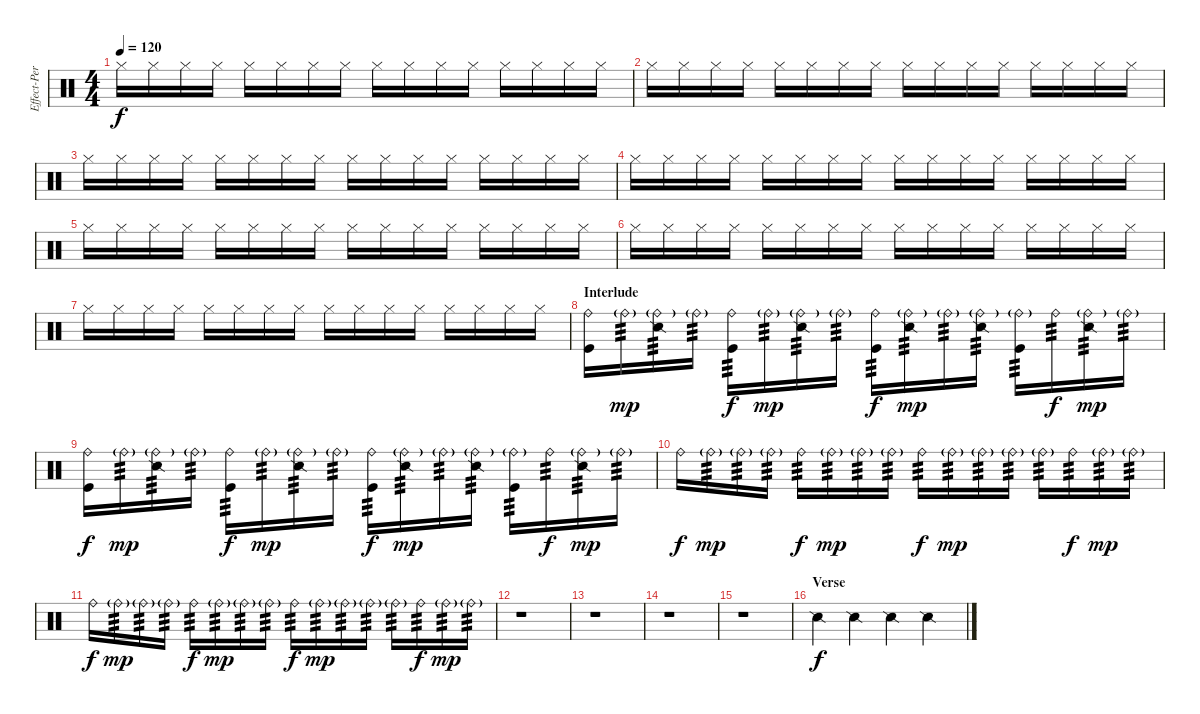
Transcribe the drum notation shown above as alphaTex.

\track ("Effect-Percs" "Effect-Per") {instrument percussion}
\staff {score}
\articulation defaults
\ts (4 4)
\tempo 120
\clef neutral
\ks c "Hi-Hat (closed)".16{dy f} "Hi-Hat (closed)".16 "Hi-Hat (closed)".16 "Hi-Hat (closed)".16 "Hi-Hat (closed)".16 "Hi-Hat (closed)".16 "Hi-Hat (closed)".16 "Hi-Hat (closed)".16 "Hi-Hat (closed)".16 "Hi-Hat (closed)".16 "Hi-Hat (closed)".16 "Hi-Hat (closed)".16 "Hi-Hat (closed)".16 "Hi-Hat (closed)".16 "Hi-Hat (closed)".16 "Hi-Hat (closed)".16
|
"Hi-Hat (closed)".16 "Hi-Hat (closed)".16 "Hi-Hat (closed)".16 "Hi-Hat (closed)".16 "Hi-Hat (closed)".16 "Hi-Hat (closed)".16 "Hi-Hat (closed)".16 "Hi-Hat (closed)".16 "Hi-Hat (closed)".16 "Hi-Hat (closed)".16 "Hi-Hat (closed)".16 "Hi-Hat (closed)".16 "Hi-Hat (closed)".16 "Hi-Hat (closed)".16 "Hi-Hat (closed)".16 "Hi-Hat (closed)".16 |
"Hi-Hat (closed)".16 "Hi-Hat (closed)".16 "Hi-Hat (closed)".16 "Hi-Hat (closed)".16 "Hi-Hat (closed)".16 "Hi-Hat (closed)".16 "Hi-Hat (closed)".16 "Hi-Hat (closed)".16 "Hi-Hat (closed)".16 "Hi-Hat (closed)".16 "Hi-Hat (closed)".16 "Hi-Hat (closed)".16 "Hi-Hat (closed)".16 "Hi-Hat (closed)".16 "Hi-Hat (closed)".16 "Hi-Hat (closed)".16 |
"Hi-Hat (closed)".16 "Hi-Hat (closed)".16 "Hi-Hat (closed)".16 "Hi-Hat (closed)".16 "Hi-Hat (closed)".16 "Hi-Hat (closed)".16 "Hi-Hat (closed)".16 "Hi-Hat (closed)".16 "Hi-Hat (closed)".16 "Hi-Hat (closed)".16 "Hi-Hat (closed)".16 "Hi-Hat (closed)".16 "Hi-Hat (closed)".16 "Hi-Hat (closed)".16 "Hi-Hat (closed)".16 "Hi-Hat (closed)".16 |
"Hi-Hat (closed)".16 "Hi-Hat (closed)".16 "Hi-Hat (closed)".16 "Hi-Hat (closed)".16 "Hi-Hat (closed)".16 "Hi-Hat (closed)".16 "Hi-Hat (closed)".16 "Hi-Hat (closed)".16 "Hi-Hat (closed)".16 "Hi-Hat (closed)".16 "Hi-Hat (closed)".16 "Hi-Hat (closed)".16 "Hi-Hat (closed)".16 "Hi-Hat (closed)".16 "Hi-Hat (closed)".16 "Hi-Hat (closed)".16 |
"Hi-Hat (closed)".16 "Hi-Hat (closed)".16 "Hi-Hat (closed)".16 "Hi-Hat (closed)".16 "Hi-Hat (closed)".16 "Hi-Hat (closed)".16 "Hi-Hat (closed)".16 "Hi-Hat (closed)".16 "Hi-Hat (closed)".16 "Hi-Hat (closed)".16 "Hi-Hat (closed)".16 "Hi-Hat (closed)".16 "Hi-Hat (closed)".16 "Hi-Hat (closed)".16 "Hi-Hat (closed)".16 "Hi-Hat (closed)".16 |
"Hi-Hat (closed)".16 "Hi-Hat (closed)".16 "Hi-Hat (closed)".16 "Hi-Hat (closed)".16 "Hi-Hat (closed)".16 "Hi-Hat (closed)".16 "Hi-Hat (closed)".16 "Hi-Hat (closed)".16 "Hi-Hat (closed)".16 "Hi-Hat (closed)".16 "Hi-Hat (closed)".16 "Hi-Hat (closed)".16 "Hi-Hat (closed)".16 "Hi-Hat (closed)".16 "Hi-Hat (closed)".16 "Hi-Hat (closed)".16 |
\section ("" "Interlude")
("Ride (bell)" "Kick (hit)").16 "Ride (bell)"{g}.16{tp 3 dy mp} ("Ride (bell)"{g} "Snare (side stick) 2").16{tp 3} "Ride (bell)"{g}.16{tp 3} ("Ride (bell)" "Kick (hit)").16{tp 3 dy f} "Ride (bell)"{g}.16{tp 3 dy mp} ("Ride (bell)"{g} "Snare (side stick) 2").16{tp 3} "Ride (bell)"{g}.16{tp 3} ("Ride (bell)" "Kick (hit)").16{tp 3 dy f} ("Ride (bell)"{g} "Snare (side stick) 2").16{tp 3 dy mp} "Ride (bell)"{g}.16{tp 3} ("Ride (bell)"{g} "Snare (side stick) 2").16{tp 3} ("Ride (bell)"{g} "Kick (hit)").16{tp 3} "Ride (bell)".16{tp 3 dy f} ("Ride (bell)"{g} "Snare (side stick) 2").16{tp 3 dy mp} "Ride (bell)"{g}.16{tp 3} |
("Ride (bell)" "Kick (hit)").16{dy f} "Ride (bell)"{g}.16{tp 3 dy mp} ("Ride (bell)"{g} "Snare (side stick) 2").16{tp 3} "Ride (bell)"{g}.16{tp 3} ("Ride (bell)" "Kick (hit)").16{tp 3 dy f} "Ride (bell)"{g}.16{tp 3 dy mp} ("Ride (bell)"{g} "Snare (side stick) 2").16{tp 3} "Ride (bell)"{g}.16{tp 3} ("Ride (bell)" "Kick (hit)").16{tp 3 dy f} ("Ride (bell)"{g} "Snare (side stick) 2").16{tp 3 dy mp} "Ride (bell)"{g}.16{tp 3} ("Ride (bell)"{g} "Snare (side stick) 2").16{tp 3} ("Ride (bell)"{g} "Kick (hit)").16{tp 3} "Ride (bell)".16{tp 3 dy f} ("Ride (bell)"{g} "Snare (side stick) 2").16{tp 3 dy mp} "Ride (bell)"{g}.16{tp 3} |
"Ride (bell)".16{dy f} "Ride (bell)"{g}.16{tp 3 dy mp} "Ride (bell)"{g}.16{tp 3} "Ride (bell)"{g}.16{tp 3} "Ride (bell)".16{tp 3 dy f} "Ride (bell)"{g}.16{tp 3 dy mp} "Ride (bell)"{g}.16{tp 3} "Ride (bell)"{g}.16{tp 3} "Ride (bell)".16{tp 3 dy f} "Ride (bell)"{g}.16{tp 3 dy mp} "Ride (bell)"{g}.16{tp 3} "Ride (bell)"{g}.16{tp 3} "Ride (bell)"{g}.16{tp 3} "Ride (bell)".16{tp 3 dy f} "Ride (bell)"{g}.16{tp 3 dy mp} "Ride (bell)"{g}.16{tp 3} |
"Ride (bell)".16{dy f} "Ride (bell)"{g}.16{tp 3 dy mp} "Ride (bell)"{g}.16{tp 3} "Ride (bell)"{g}.16{tp 3} "Ride (bell)".16{tp 3 dy f} "Ride (bell)"{g}.16{tp 3 dy mp} "Ride (bell)"{g}.16{tp 3} "Ride (bell)"{g}.16{tp 3} "Ride (bell)".16{tp 3 dy f} "Ride (bell)"{g}.16{tp 3 dy mp} "Ride (bell)"{g}.16{tp 3} "Ride (bell)"{g}.16{tp 3} "Ride (bell)"{g}.16{tp 3} "Ride (bell)".16{tp 3 dy f} "Ride (bell)"{g}.16{tp 3 dy mp} "Ride (bell)"{g}.16{tp 3} |
r.1 |
r.1 |
r.1 |
r.1 |
\section ("" "Verse")
"Snare (side stick) 2".4{dy f} "Snare (side stick) 2".4 "Snare (side stick) 2".4 "Snare (side stick) 2".4
